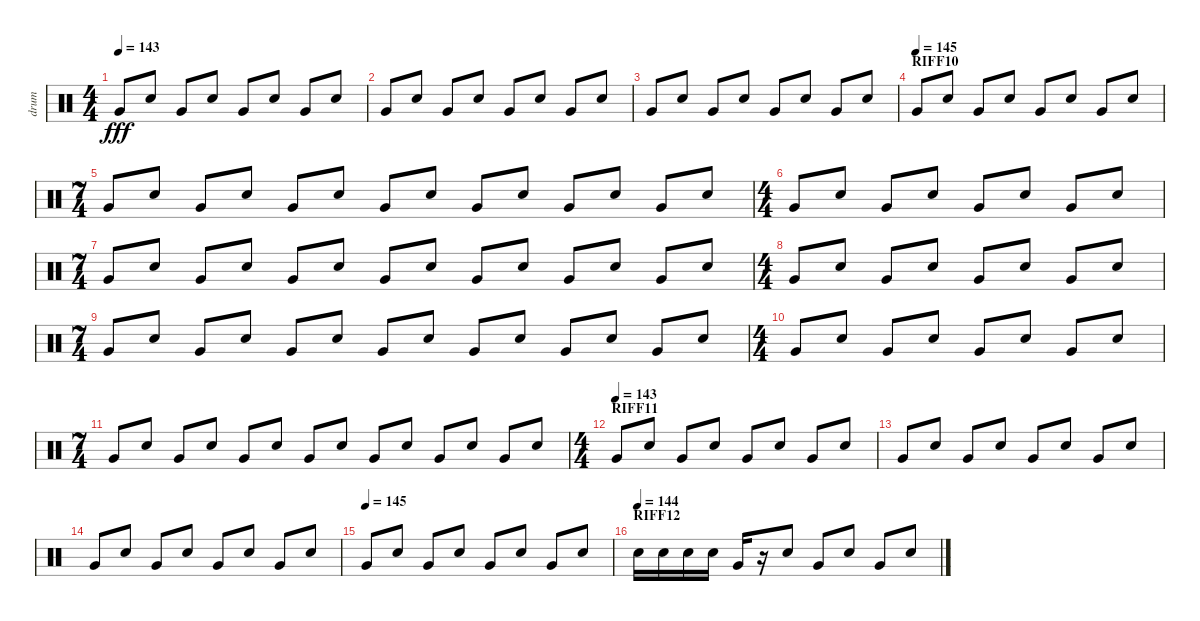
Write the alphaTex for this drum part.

\track ("drum" "drum") {instrument percussion}
\staff {score}
\articulation defaults
\ts (4 4)
\tempo 143
\clef neutral
\ks c "Very Low Tom (hit)".8{dy fff} "Electric Snare (hit)".8 "Very Low Tom (hit)".8 "Electric Snare (hit)".8 "Very Low Tom (hit)".8 "Electric Snare (hit)".8 "Very Low Tom (hit)".8 "Electric Snare (hit)".8
|
"Very Low Tom (hit)".8 "Electric Snare (hit)".8 "Very Low Tom (hit)".8 "Electric Snare (hit)".8 "Very Low Tom (hit)".8 "Electric Snare (hit)".8 "Very Low Tom (hit)".8 "Electric Snare (hit)".8 |
"Very Low Tom (hit)".8 "Electric Snare (hit)".8 "Very Low Tom (hit)".8 "Electric Snare (hit)".8 "Very Low Tom (hit)".8 "Electric Snare (hit)".8 "Very Low Tom (hit)".8 "Electric Snare (hit)".8 |
\section ("" "RIFF10")
\tempo (145)
"Very Low Tom (hit)".8 "Electric Snare (hit)".8 "Very Low Tom (hit)".8 "Electric Snare (hit)".8 "Very Low Tom (hit)".8 "Electric Snare (hit)".8 "Very Low Tom (hit)".8 "Electric Snare (hit)".8 |
\ts (7 4)
"Very Low Tom (hit)".8 "Electric Snare (hit)".8 "Very Low Tom (hit)".8 "Electric Snare (hit)".8 "Very Low Tom (hit)".8 "Electric Snare (hit)".8 "Very Low Tom (hit)".8 "Electric Snare (hit)".8 "Very Low Tom (hit)".8 "Electric Snare (hit)".8 "Very Low Tom (hit)".8 "Electric Snare (hit)".8 "Very Low Tom (hit)".8 "Electric Snare (hit)".8 |
\ts (4 4)
"Very Low Tom (hit)".8 "Electric Snare (hit)".8 "Very Low Tom (hit)".8 "Electric Snare (hit)".8 "Very Low Tom (hit)".8 "Electric Snare (hit)".8 "Very Low Tom (hit)".8 "Electric Snare (hit)".8 |
\ts (7 4)
"Very Low Tom (hit)".8 "Electric Snare (hit)".8 "Very Low Tom (hit)".8 "Electric Snare (hit)".8 "Very Low Tom (hit)".8 "Electric Snare (hit)".8 "Very Low Tom (hit)".8 "Electric Snare (hit)".8 "Very Low Tom (hit)".8 "Electric Snare (hit)".8 "Very Low Tom (hit)".8 "Electric Snare (hit)".8 "Very Low Tom (hit)".8 "Electric Snare (hit)".8 |
\ts (4 4)
"Very Low Tom (hit)".8 "Electric Snare (hit)".8 "Very Low Tom (hit)".8 "Electric Snare (hit)".8 "Very Low Tom (hit)".8 "Electric Snare (hit)".8 "Very Low Tom (hit)".8 "Electric Snare (hit)".8 |
\ts (7 4)
"Very Low Tom (hit)".8 "Electric Snare (hit)".8 "Very Low Tom (hit)".8 "Electric Snare (hit)".8 "Very Low Tom (hit)".8 "Electric Snare (hit)".8 "Very Low Tom (hit)".8 "Electric Snare (hit)".8 "Very Low Tom (hit)".8 "Electric Snare (hit)".8 "Very Low Tom (hit)".8 "Electric Snare (hit)".8 "Very Low Tom (hit)".8 "Electric Snare (hit)".8 |
\ts (4 4)
"Very Low Tom (hit)".8 "Electric Snare (hit)".8 "Very Low Tom (hit)".8 "Electric Snare (hit)".8 "Very Low Tom (hit)".8 "Electric Snare (hit)".8 "Very Low Tom (hit)".8 "Electric Snare (hit)".8 |
\ts (7 4)
"Very Low Tom (hit)".8 "Electric Snare (hit)".8 "Very Low Tom (hit)".8 "Electric Snare (hit)".8 "Very Low Tom (hit)".8 "Electric Snare (hit)".8 "Very Low Tom (hit)".8 "Electric Snare (hit)".8 "Very Low Tom (hit)".8 "Electric Snare (hit)".8 "Very Low Tom (hit)".8 "Electric Snare (hit)".8 "Very Low Tom (hit)".8 "Electric Snare (hit)".8 |
\ts (4 4)
\section ("" "RIFF11")
\tempo (143)
"Very Low Tom (hit)".8 "Electric Snare (hit)".8 "Very Low Tom (hit)".8 "Electric Snare (hit)".8 "Very Low Tom (hit)".8 "Electric Snare (hit)".8 "Very Low Tom (hit)".8 "Electric Snare (hit)".8 |
"Very Low Tom (hit)".8 "Electric Snare (hit)".8 "Very Low Tom (hit)".8 "Electric Snare (hit)".8 "Very Low Tom (hit)".8 "Electric Snare (hit)".8 "Very Low Tom (hit)".8 "Electric Snare (hit)".8 |
"Very Low Tom (hit)".8 "Electric Snare (hit)".8 "Very Low Tom (hit)".8 "Electric Snare (hit)".8 "Very Low Tom (hit)".8 "Electric Snare (hit)".8 "Very Low Tom (hit)".8 "Electric Snare (hit)".8 |
\tempo (145)
"Very Low Tom (hit)".8 "Electric Snare (hit)".8 "Very Low Tom (hit)".8 "Electric Snare (hit)".8 "Very Low Tom (hit)".8 "Electric Snare (hit)".8 "Very Low Tom (hit)".8 "Electric Snare (hit)".8 |
\section ("" "RIFF12")
\tempo (144)
"Electric Snare (hit)".16 "Electric Snare (hit)".16 "Electric Snare (hit)".16 "Electric Snare (hit)".16 "Very Low Tom (hit)".16 r.16 "Electric Snare (hit)".8 "Very Low Tom (hit)".8 "Electric Snare (hit)".8 "Very Low Tom (hit)".8 "Electric Snare (hit)".8
